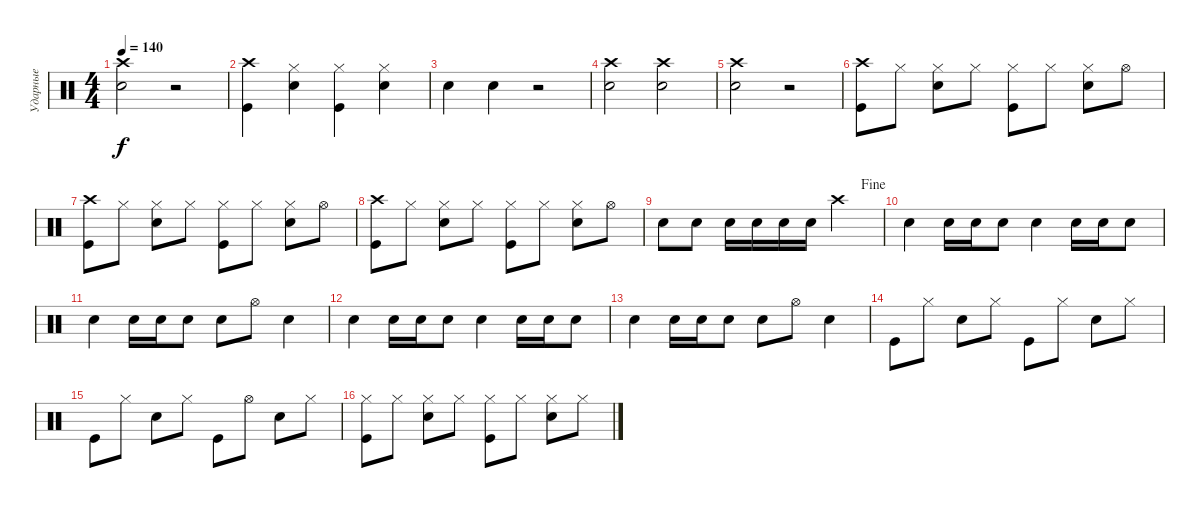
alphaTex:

\track ("Ударные" "Ударные") {instrument percussion}
\staff {score}
\articulation defaults
\ts (4 4)
\tempo 140
\clef neutral
\ks c
("Crash high (hit)" "Snare (hit) 2").2{dy f} r.2 |
("Crash high (hit)" "Kick (hit)").4 ("Hi-Hat (closed)" "Snare (hit) 2").4 ("Hi-Hat (closed)" "Kick (hit)").4 ("Hi-Hat (closed)" "Snare (hit) 2").4 |
"Snare (hit) 2".4 "Snare (hit) 2".4 r.2 |
("Crash high (hit)" "Snare (hit) 2").2 ("Crash high (hit)" "Snare (hit) 2").2 |
("Crash high (hit)" "Snare (hit) 2").2 r.2 |
("Crash high (hit)" "Kick (hit)").8 "Hi-Hat (closed)".8 ("Hi-Hat (closed)" "Snare (hit) 2").8 "Hi-Hat (closed)".8 ("Hi-Hat (closed)" "Kick (hit)").8 "Hi-Hat (closed)".8 ("Hi-Hat (closed)" "Snare (hit) 2").8 "Hi-Hat (open)".8 |
("Crash high (hit)" "Kick (hit)").8 "Hi-Hat (closed)".8 ("Hi-Hat (closed)" "Snare (hit) 2").8 "Hi-Hat (closed)".8 ("Hi-Hat (closed)" "Kick (hit)").8 "Hi-Hat (closed)".8 ("Hi-Hat (closed)" "Snare (hit) 2").8 "Hi-Hat (open)".8 |
("Crash high (hit)" "Kick (hit)").8 "Hi-Hat (closed)".8 ("Hi-Hat (closed)" "Snare (hit) 2").8 "Hi-Hat (closed)".8 ("Hi-Hat (closed)" "Kick (hit)").8 "Hi-Hat (closed)".8 ("Hi-Hat (closed)" "Snare (hit) 2").8 "Hi-Hat (open)".8 |
\jump fine "Snare (hit) 2".8 "Snare (hit) 2".8 "Snare (hit) 2".16 "Snare (hit) 2".16 "Snare (hit) 2".16 "Snare (hit) 2".16 "Crash high (hit)".2
|
"Snare (hit) 2".4 "Snare (hit) 2".16 "Snare (hit) 2".16 "Snare (hit) 2".8 "Snare (hit) 2".4 "Snare (hit) 2".16 "Snare (hit) 2".16 "Snare (hit) 2".8 |
"Snare (hit) 2".4 "Snare (hit) 2".16 "Snare (hit) 2".16 "Snare (hit) 2".8 "Snare (hit) 2".8 "Hi-Hat (open)".8 "Snare (hit) 2".4 |
"Snare (hit) 2".4 "Snare (hit) 2".16 "Snare (hit) 2".16 "Snare (hit) 2".8 "Snare (hit) 2".4 "Snare (hit) 2".16 "Snare (hit) 2".16 "Snare (hit) 2".8 |
"Snare (hit) 2".4 "Snare (hit) 2".16 "Snare (hit) 2".16 "Snare (hit) 2".8 "Snare (hit) 2".8 "Hi-Hat (open)".8 "Snare (hit) 2".4 |
"Kick (hit)".8 "Hi-Hat (closed)".8 "Snare (hit) 2".8 "Hi-Hat (closed)".8 "Kick (hit)".8 "Hi-Hat (closed)".8 "Snare (hit) 2".8 "Hi-Hat (closed)".8 |
"Kick (hit)".8 "Hi-Hat (closed)".8 "Snare (hit) 2".8 "Hi-Hat (closed)".8 "Kick (hit)".8 "Hi-Hat (open)".8 "Snare (hit) 2".8 "Hi-Hat (closed)".8 |
("Kick (hit)" "Hi-Hat (closed)").8 "Hi-Hat (closed)".8 ("Snare (hit) 2" "Hi-Hat (closed)").8 "Hi-Hat (closed)".8 ("Kick (hit)" "Hi-Hat (closed)").8 "Hi-Hat (closed)".8 ("Snare (hit) 2" "Hi-Hat (closed)").8 "Hi-Hat (closed)".8
